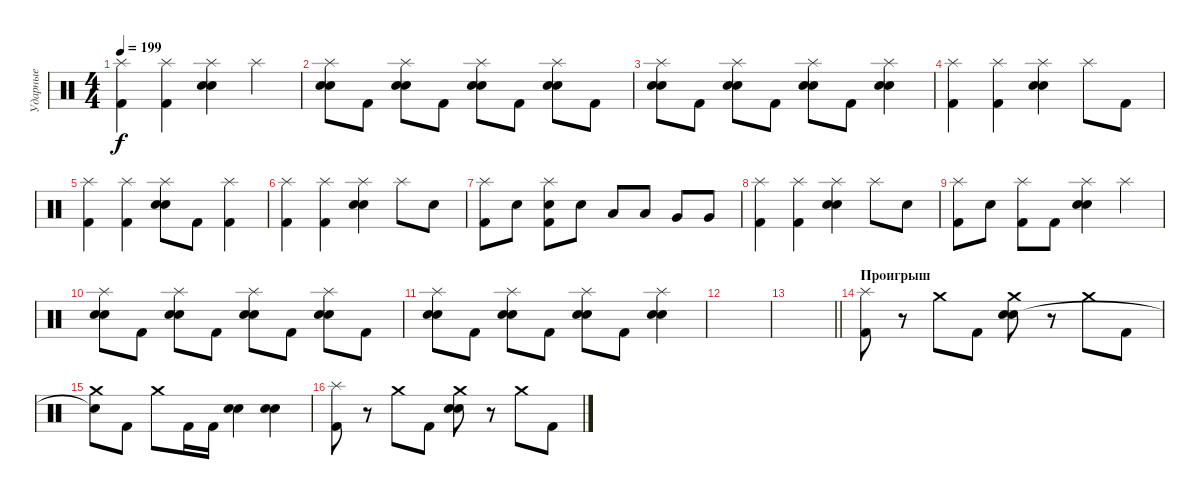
\track ("Ударные" "Ударные") {instrument percussion}
\staff {score}
\articulation defaults
\ts (4 4)
\tempo 199
\clef neutral
\ks c
("Splash (hit)" "Kick (hit) 2").4{dy f} ("Splash (hit)" "Kick (hit) 2").4 ("Splash (hit)" "Electric Snare (hit)" "Snare (hit) 2").4 "Splash (hit)".4 |
("Splash (hit)" "Electric Snare (hit)" "Snare (hit) 2").8 "Kick (hit) 2".8 ("Splash (hit)" "Electric Snare (hit)" "Snare (hit) 2").8 "Kick (hit) 2".8 ("Splash (hit)" "Electric Snare (hit)" "Snare (hit) 2").8 "Kick (hit) 2".8 ("Splash (hit)" "Electric Snare (hit)" "Snare (hit) 2").8 "Kick (hit) 2".8 |
("Splash (hit)" "Electric Snare (hit)" "Snare (hit) 2").8 "Kick (hit) 2".8 ("Splash (hit)" "Electric Snare (hit)" "Snare (hit) 2").8 "Kick (hit) 2".8 ("Splash (hit)" "Electric Snare (hit)" "Snare (hit) 2").8 "Kick (hit) 2".8 ("Splash (hit)" "Electric Snare (hit)" "Snare (hit) 2").4 |
("Splash (hit)" "Kick (hit) 2").4 ("Splash (hit)" "Kick (hit) 2").4 ("Splash (hit)" "Electric Snare (hit)" "Snare (hit) 2").4 "Splash (hit)".8 "Kick (hit) 2".8 |
("Splash (hit)" "Kick (hit) 2").4 ("Splash (hit)" "Kick (hit) 2").4 ("Splash (hit)" "Electric Snare (hit)" "Snare (hit) 2").8 "Kick (hit) 2".8 ("Splash (hit)" "Kick (hit) 2").4 |
("Splash (hit)" "Kick (hit) 2").4 ("Splash (hit)" "Kick (hit) 2").4 ("Splash (hit)" "Electric Snare (hit)" "Snare (hit) 2").4 "Splash (hit)".8 "Electric Snare (hit)".8 |
("Splash (hit)" "Kick (hit) 2").8 "Electric Snare (hit)".8 ("Splash (hit)" "Electric Snare (hit)" "Kick (hit) 2").8 "Electric Snare (hit)".8 "Low Tom (hit)".8 "Low Tom (hit)".8 "Very Low Tom (hit)".8 "Very Low Tom (hit)".8 |
("Splash (hit)" "Kick (hit) 2").4 ("Splash (hit)" "Kick (hit) 2").4 ("Splash (hit)" "Electric Snare (hit)" "Snare (hit) 2").4 "Splash (hit)".8 "Electric Snare (hit)".8 |
("Splash (hit)" "Kick (hit) 2").8 "Electric Snare (hit)".8 ("Splash (hit)" "Kick (hit) 2").8 "Kick (hit) 2".8 ("Splash (hit)" "Electric Snare (hit)" "Snare (hit) 2").4 "Splash (hit)".4 |
("Splash (hit)" "Electric Snare (hit)" "Snare (hit) 2").8 "Kick (hit) 2".8 ("Splash (hit)" "Electric Snare (hit)" "Snare (hit) 2").8 "Kick (hit) 2".8 ("Splash (hit)" "Electric Snare (hit)" "Snare (hit) 2").8 "Kick (hit) 2".8 ("Splash (hit)" "Electric Snare (hit)" "Snare (hit) 2").8 "Kick (hit) 2".8 |
("Splash (hit)" "Electric Snare (hit)" "Snare (hit) 2").8 "Kick (hit) 2".8 ("Splash (hit)" "Electric Snare (hit)" "Snare (hit) 2").8 "Kick (hit) 2".8 ("Splash (hit)" "Electric Snare (hit)" "Snare (hit) 2").8 "Kick (hit) 2".8 ("Splash (hit)" "Electric Snare (hit)" "Snare (hit) 2").4 |
|
\barLineRight lightlight
|
\section ("" "Проигрыш")
("Splash (hit)" "Kick (hit) 2").8 r.8 "Crash medium (hit)".8 "Kick (hit) 2".8 ("Crash medium (hit)" "Electric Snare (hit)" "Snare (hit) 2").8 r.8 "Crash medium (hit)".8 "Kick (hit) 2".8 |
("Crash medium (hit)" "Snare (hit)"{t}).8 "Kick (hit) 2".8 "Crash medium (hit)".8 "Kick (hit) 2".16 "Kick (hit) 2".16 ("Electric Snare (hit)" "Snare (hit) 2").4 ("Electric Snare (hit)" "Snare (hit) 2").4 |
("Splash (hit)" "Kick (hit) 2").8 r.8 "Crash medium (hit)".8 "Kick (hit) 2".8 ("Crash medium (hit)" "Electric Snare (hit)" "Snare (hit) 2").8 r.8 "Crash medium (hit)".8 "Kick (hit) 2".8
